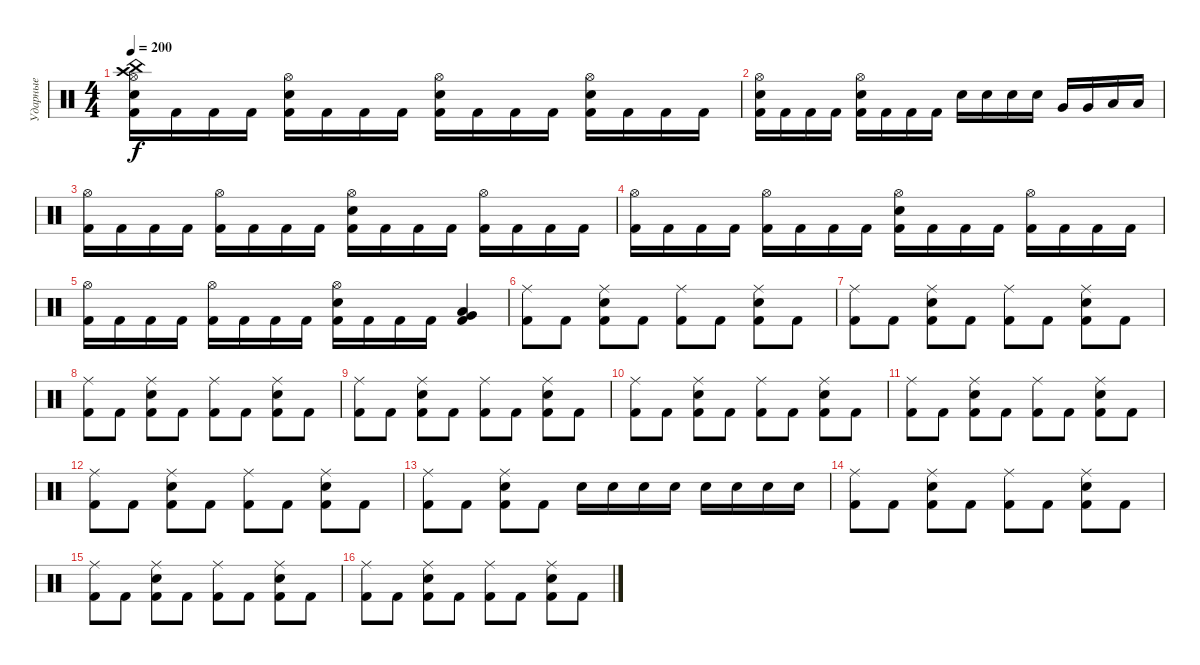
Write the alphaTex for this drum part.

\track ("Ударные" "Ударные") {instrument percussion}
\staff {score}
\articulation defaults
\ts (4 4)
\tempo 200
\clef neutral
\ks c
("Kick (hit) 2" "Electric Snare (hit)" "Hi-Hat (open)" "Crash high (hit)" "China (hit)").16{dy f} "Kick (hit) 2".16 "Kick (hit) 2".16 "Kick (hit) 2".16 ("Kick (hit) 2" "Electric Snare (hit)" "Hi-Hat (open)").16 "Kick (hit) 2".16 "Kick (hit) 2".16 "Kick (hit) 2".16 ("Kick (hit) 2" "Electric Snare (hit)" "Hi-Hat (open)").16 "Kick (hit) 2".16 "Kick (hit) 2".16 "Kick (hit) 2".16 ("Kick (hit) 2" "Electric Snare (hit)" "Hi-Hat (open)").16 "Kick (hit) 2".16 "Kick (hit) 2".16 "Kick (hit) 2".16 |
("Kick (hit) 2" "Electric Snare (hit)" "Hi-Hat (open)").16 "Kick (hit) 2".16 "Kick (hit) 2".16 "Kick (hit) 2".16 ("Kick (hit) 2" "Electric Snare (hit)" "Hi-Hat (open)").16 "Kick (hit) 2".16 "Kick (hit) 2".16 "Kick (hit) 2".16 "Electric Snare (hit)".16 "Electric Snare (hit)".16 "Snare (hit) 2".16 "Snare (hit) 2".16 "Very Low Tom (hit)".16 "Very Low Tom (hit)".16 "Low Floor Tom (hit)".16 "Low Floor Tom (hit)".16 |
("Kick (hit) 2" "Hi-Hat (open)").16 "Kick (hit) 2".16 "Kick (hit) 2".16 "Kick (hit) 2".16 ("Kick (hit) 2" "Hi-Hat (open)").16 "Kick (hit) 2".16 "Kick (hit) 2".16 "Kick (hit) 2".16 ("Kick (hit) 2" "Electric Snare (hit)" "Hi-Hat (open)").16 "Kick (hit) 2".16 "Kick (hit) 2".16 "Kick (hit) 2".16 ("Kick (hit) 2" "Hi-Hat (open)").16 "Kick (hit) 2".16 "Kick (hit) 2".16 "Kick (hit) 2".16 |
("Kick (hit) 2" "Hi-Hat (open)").16 "Kick (hit) 2".16 "Kick (hit) 2".16 "Kick (hit) 2".16 ("Kick (hit) 2" "Hi-Hat (open)").16 "Kick (hit) 2".16 "Kick (hit) 2".16 "Kick (hit) 2".16 ("Kick (hit) 2" "Electric Snare (hit)" "Hi-Hat (open)").16 "Kick (hit) 2".16 "Kick (hit) 2".16 "Kick (hit) 2".16 ("Kick (hit) 2" "Hi-Hat (open)").16 "Kick (hit) 2".16 "Kick (hit) 2".16 "Kick (hit) 2".16 |
("Kick (hit) 2" "Hi-Hat (open)").16 "Kick (hit) 2".16 "Kick (hit) 2".16 "Kick (hit) 2".16 ("Kick (hit) 2" "Hi-Hat (open)").16 "Kick (hit) 2".16 "Kick (hit) 2".16 "Kick (hit) 2".16 ("Kick (hit) 2" "Electric Snare (hit)" "Hi-Hat (open)").16 "Kick (hit) 2".16 "Kick (hit) 2".16 "Kick (hit) 2".16 ("Low Floor Tom (hit)" "Very Low Tom (hit)" "Kick (hit) 2").4 |
("Kick (hit) 2" "Ride (middle)").8 "Kick (hit) 2".8 ("Kick (hit) 2" "Electric Snare (hit)" "Ride (middle)").8 "Kick (hit) 2".8 ("Kick (hit) 2" "Ride (middle)").8 "Kick (hit) 2".8 ("Kick (hit) 2" "Electric Snare (hit)" "Ride (middle)").8 "Kick (hit) 2".8 |
("Kick (hit) 2" "Ride (middle)").8 "Kick (hit) 2".8 ("Kick (hit) 2" "Electric Snare (hit)" "Ride (middle)").8 "Kick (hit) 2".8 ("Kick (hit) 2" "Ride (middle)").8 "Kick (hit) 2".8 ("Kick (hit) 2" "Electric Snare (hit)" "Ride (middle)").8 "Kick (hit) 2".8 |
("Kick (hit) 2" "Ride (middle)").8 "Kick (hit) 2".8 ("Kick (hit) 2" "Electric Snare (hit)" "Ride (middle)").8 "Kick (hit) 2".8 ("Kick (hit) 2" "Ride (middle)").8 "Kick (hit) 2".8 ("Kick (hit) 2" "Electric Snare (hit)" "Ride (middle)").8 "Kick (hit) 2".8 |
("Kick (hit) 2" "Ride (middle)").8 "Kick (hit) 2".8 ("Kick (hit) 2" "Electric Snare (hit)" "Ride (middle)").8 "Kick (hit) 2".8 ("Kick (hit) 2" "Ride (middle)").8 "Kick (hit) 2".8 ("Kick (hit) 2" "Electric Snare (hit)" "Ride (middle)").8 "Kick (hit) 2".8 |
("Kick (hit) 2" "Ride (middle)").8 "Kick (hit) 2".8 ("Kick (hit) 2" "Electric Snare (hit)" "Ride (middle)").8 "Kick (hit) 2".8 ("Kick (hit) 2" "Ride (middle)").8 "Kick (hit) 2".8 ("Kick (hit) 2" "Electric Snare (hit)" "Ride (middle)").8 "Kick (hit) 2".8 |
("Kick (hit) 2" "Ride (middle)").8 "Kick (hit) 2".8 ("Kick (hit) 2" "Electric Snare (hit)" "Ride (middle)").8 "Kick (hit) 2".8 ("Kick (hit) 2" "Ride (middle)").8 "Kick (hit) 2".8 ("Kick (hit) 2" "Electric Snare (hit)" "Ride (middle)").8 "Kick (hit) 2".8 |
("Kick (hit) 2" "Ride (middle)").8 "Kick (hit) 2".8 ("Kick (hit) 2" "Electric Snare (hit)" "Ride (middle)").8 "Kick (hit) 2".8 ("Kick (hit) 2" "Ride (middle)").8 "Kick (hit) 2".8 ("Kick (hit) 2" "Electric Snare (hit)" "Ride (middle)").8 "Kick (hit) 2".8 |
("Kick (hit) 2" "Ride (middle)").8 "Kick (hit) 2".8 ("Kick (hit) 2" "Electric Snare (hit)" "Ride (middle)").8 "Kick (hit) 2".8 "Electric Snare (hit)".16 "Electric Snare (hit)".16 "Electric Snare (hit)".16 "Electric Snare (hit)".16 "Snare (hit) 2".16 "Snare (hit) 2".16 "Snare (hit) 2".16 "Snare (hit) 2".16 |
("Kick (hit) 2" "Ride (middle)").8 "Kick (hit) 2".8 ("Kick (hit) 2" "Electric Snare (hit)" "Ride (middle)").8 "Kick (hit) 2".8 ("Kick (hit) 2" "Ride (middle)").8 "Kick (hit) 2".8 ("Kick (hit) 2" "Electric Snare (hit)" "Ride (middle)").8 "Kick (hit) 2".8 |
("Kick (hit) 2" "Ride (middle)").8 "Kick (hit) 2".8 ("Kick (hit) 2" "Electric Snare (hit)" "Ride (middle)").8 "Kick (hit) 2".8 ("Kick (hit) 2" "Ride (middle)").8 "Kick (hit) 2".8 ("Kick (hit) 2" "Electric Snare (hit)" "Ride (middle)").8 "Kick (hit) 2".8 |
("Kick (hit) 2" "Ride (middle)").8 "Kick (hit) 2".8 ("Kick (hit) 2" "Electric Snare (hit)" "Ride (middle)").8 "Kick (hit) 2".8 ("Kick (hit) 2" "Ride (middle)").8 "Kick (hit) 2".8 ("Kick (hit) 2" "Electric Snare (hit)" "Ride (middle)").8 "Kick (hit) 2".8
